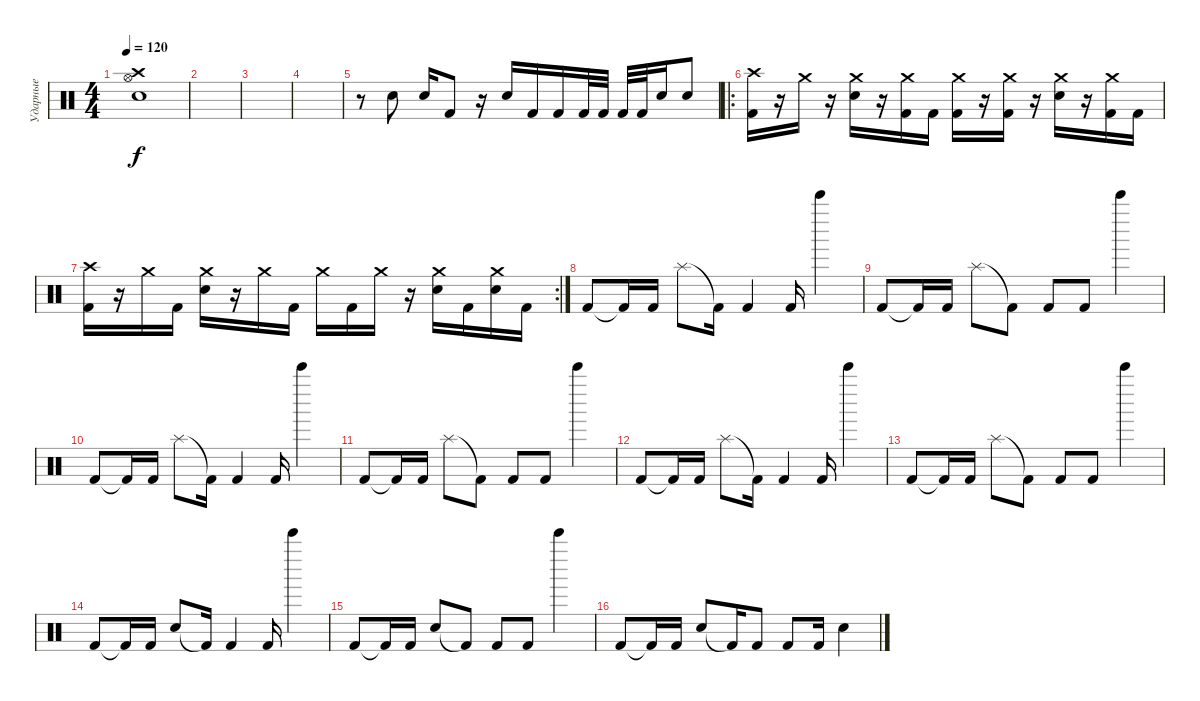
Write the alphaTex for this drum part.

\track ("Ударные" "Ударные") {instrument percussion}
\staff {score}
\articulation defaults
\ts (4 4)
\tempo 120
\clef neutral
\ks c
("Crash high (hit)" "Hi-Hat (open)" "Snare (hit) 2").1{dy f} |
|
|
|
r.8 "Electric Snare (hit)".8 "Electric Snare (hit)".16 "Kick (hit) 2".8 r.16 "Electric Snare (hit)".16 "Kick (hit) 2".16 "Kick (hit) 2".16 "Kick (hit) 2".32 "Kick (hit) 2".32 "Kick (hit) 2".32 "Kick (hit) 2".32 "Electric Snare (hit)".16 "Electric Snare (hit)".8 |
\ro
("Crash high (hit)" "Kick (hit) 2").16 r.16 "Crash medium (hit)".16 r.16 ("Crash medium (hit)" "Electric Snare (hit)").16 r.16 ("Crash medium (hit)" "Kick (hit) 2").16 "Kick (hit) 2".16 ("Crash medium (hit)" "Kick (hit) 2").16 r.16 ("Crash medium (hit)" "Kick (hit) 2").16 r.16 ("Crash medium (hit)" "Electric Snare (hit)").16 r.16 ("Crash medium (hit)" "Kick (hit) 2").16 "Kick (hit) 2".16 |
\rc 2
("Crash high (hit)" "Kick (hit) 2").16 r.16 "Crash medium (hit)".16 "Kick (hit) 2".16 ("Crash medium (hit)" "Electric Snare (hit)").16 r.16 "Crash medium (hit)".16 "Kick (hit) 2".16 "Crash medium (hit)".16 "Kick (hit) 2".16 "Crash medium (hit)".16 r.16 ("Crash medium (hit)" "Electric Snare (hit)").16 "Kick (hit) 2".16 ("Crash medium (hit)" "Electric Snare (hit)").16 "Kick (hit) 2".16 |
"Kick (hit) 2".8 "Kick (hit) 2"{t}.16 "Kick (hit) 2".16 "Splash (hit)".8 "Kick (hit) 2"{t}.16 "Kick (hit) 2".4 "Kick (hit) 2".16 "Bell Tree (hit)".4 |
"Kick (hit) 2".8 "Kick (hit) 2"{t}.16 "Kick (hit) 2".16 "Splash (hit)".8 "Kick (hit) 2"{t}.8 "Kick (hit) 2".8 "Kick (hit) 2".8 "Bell Tree (hit)".4 |
"Kick (hit) 2".8 "Kick (hit) 2"{t}.16 "Kick (hit) 2".16 "Splash (hit)".8 "Kick (hit) 2"{t}.16 "Kick (hit) 2".4 "Kick (hit) 2".16 "Bell Tree (hit)".4 |
"Kick (hit) 2".8 "Kick (hit) 2"{t}.16 "Kick (hit) 2".16 "Splash (hit)".8 "Kick (hit) 2"{t}.8 "Kick (hit) 2".8 "Kick (hit) 2".8 "Bell Tree (hit)".4 |
"Kick (hit) 2".8 "Kick (hit) 2"{t}.16 "Kick (hit) 2".16 "Splash (hit)".8 "Kick (hit) 2"{t}.16 "Kick (hit) 2".4 "Kick (hit) 2".16 "Bell Tree (hit)".4 |
"Kick (hit) 2".8 "Kick (hit) 2"{t}.16 "Kick (hit) 2".16 "Splash (hit)".8 "Kick (hit) 2"{t}.8 "Kick (hit) 2".8 "Kick (hit) 2".8 "Bell Tree (hit)".4 |
"Kick (hit) 2".8 "Kick (hit) 2"{t}.16 "Kick (hit) 2".16 "Electric Snare (hit)".8 "Kick (hit) 2"{t}.16 "Kick (hit) 2".4 "Kick (hit) 2".16 "Bell Tree (hit)".4 |
"Kick (hit) 2".8 "Kick (hit) 2"{t}.16 "Kick (hit) 2".16 "Electric Snare (hit)".8 "Kick (hit) 2"{t}.8 "Kick (hit) 2".8 "Kick (hit) 2".8 "Bell Tree (hit)".4 |
"Kick (hit) 2".8 "Kick (hit) 2"{t}.16 "Kick (hit) 2".16 "Electric Snare (hit)".8 "Kick (hit) 2"{t}.16 "Kick (hit) 2".8 "Kick (hit) 2".8 "Kick (hit) 2".16 "Electric Snare (hit)".4
